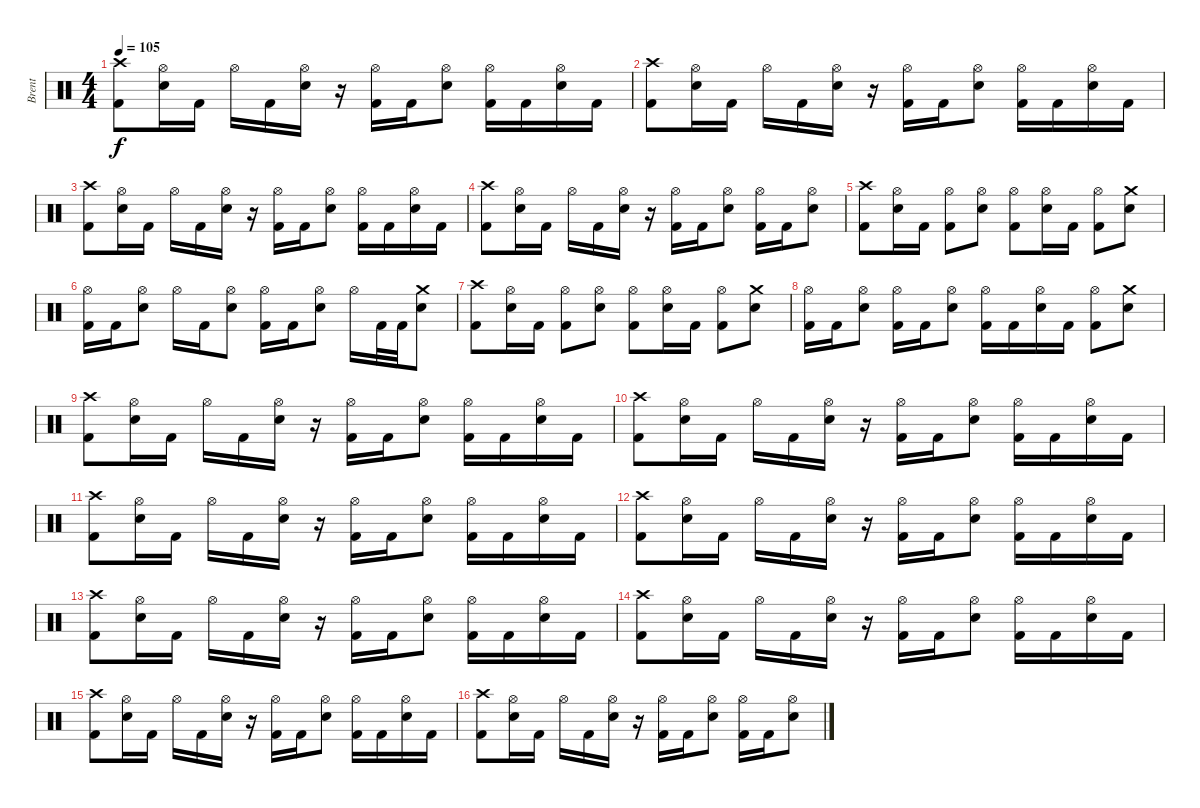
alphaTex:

\track ("Brent" "Brent") {instrument percussion}
\staff {score}
\articulation defaults
\ts (4 4)
\tempo 105
\clef neutral
\ks c
("Crash high (hit)" "Kick (hit) 2").8{dy f} ("Hi-Hat (open)" "Snare (hit) 2").16 "Kick (hit) 2".16 "Hi-Hat (open)".16 "Kick (hit) 2".16 ("Hi-Hat (open)" "Snare (hit) 2").16 r.16 ("Hi-Hat (open)" "Kick (hit) 2").16 "Kick (hit) 2".16 ("Hi-Hat (open)" "Snare (hit) 2").8 ("Hi-Hat (open)" "Kick (hit) 2").16 "Kick (hit) 2".16 ("Hi-Hat (open)" "Snare (hit) 2").16 "Kick (hit) 2".16 |
("Crash high (hit)" "Kick (hit) 2").8 ("Hi-Hat (open)" "Snare (hit) 2").16 "Kick (hit) 2".16 "Hi-Hat (open)".16 "Kick (hit) 2".16 ("Hi-Hat (open)" "Snare (hit) 2").16 r.16 ("Hi-Hat (open)" "Kick (hit) 2").16 "Kick (hit) 2".16 ("Hi-Hat (open)" "Snare (hit) 2").8 ("Hi-Hat (open)" "Kick (hit) 2").16 "Kick (hit) 2".16 ("Hi-Hat (open)" "Snare (hit) 2").16 "Kick (hit) 2".16 |
("Crash high (hit)" "Kick (hit) 2").8 ("Hi-Hat (open)" "Snare (hit) 2").16 "Kick (hit) 2".16 "Hi-Hat (open)".16 "Kick (hit) 2".16 ("Hi-Hat (open)" "Snare (hit) 2").16 r.16 ("Hi-Hat (open)" "Kick (hit) 2").16 "Kick (hit) 2".16 ("Hi-Hat (open)" "Snare (hit) 2").8 ("Hi-Hat (open)" "Kick (hit) 2").16 "Kick (hit) 2".16 ("Hi-Hat (open)" "Snare (hit) 2").16 "Kick (hit) 2".16 |
("Crash high (hit)" "Kick (hit) 2").8 ("Hi-Hat (open)" "Snare (hit) 2").16 "Kick (hit) 2".16 "Hi-Hat (open)".16 "Kick (hit) 2".16 ("Hi-Hat (open)" "Snare (hit) 2").16 r.16 ("Hi-Hat (open)" "Kick (hit) 2").16 "Kick (hit) 2".16 ("Hi-Hat (open)" "Snare (hit) 2").8 ("Hi-Hat (open)" "Kick (hit) 2").16 "Kick (hit) 2".16 ("Hi-Hat (open)" "Snare (hit) 2").8 |
("Crash high (hit)" "Kick (hit) 2").8 ("Hi-Hat (open)" "Snare (hit) 2").16 "Kick (hit) 2".16 ("Hi-Hat (open)" "Kick (hit) 2").8 ("Hi-Hat (open)" "Snare (hit) 2").8 ("Hi-Hat (open)" "Kick (hit) 2").8 ("Hi-Hat (open)" "Snare (hit) 2").16 "Kick (hit) 2".16 ("Hi-Hat (open)" "Kick (hit) 2").8 ("Crash medium (hit)" "Snare (hit) 2").8 |
("Hi-Hat (open)" "Kick (hit) 2").16 "Kick (hit) 2".16 ("Hi-Hat (open)" "Snare (hit) 2").8 "Hi-Hat (open)".16 "Kick (hit) 2".16 ("Hi-Hat (open)" "Snare (hit) 2").8 ("Hi-Hat (open)" "Kick (hit) 2").16 "Kick (hit) 2".16 ("Hi-Hat (open)" "Snare (hit) 2").8 "Hi-Hat (open)".16 "Kick (hit) 2".32 "Kick (hit) 2".32 ("Crash medium (hit)" "Snare (hit) 2").8 |
("Crash high (hit)" "Kick (hit) 2").8 ("Hi-Hat (open)" "Snare (hit) 2").16 "Kick (hit) 2".16 ("Hi-Hat (open)" "Kick (hit) 2").8 ("Hi-Hat (open)" "Snare (hit) 2").8 ("Hi-Hat (open)" "Kick (hit) 2").8 ("Hi-Hat (open)" "Snare (hit) 2").16 "Kick (hit) 2".16 ("Hi-Hat (open)" "Kick (hit) 2").8 ("Crash medium (hit)" "Snare (hit) 2").8 |
("Hi-Hat (open)" "Kick (hit) 2").16 "Kick (hit) 2".16 ("Hi-Hat (open)" "Snare (hit) 2").8 ("Hi-Hat (open)" "Kick (hit) 2").16 "Kick (hit) 2".16 ("Hi-Hat (open)" "Snare (hit) 2").8 ("Hi-Hat (open)" "Kick (hit) 2").16 "Kick (hit) 2".16 ("Hi-Hat (open)" "Snare (hit) 2").16 "Kick (hit) 2".16 ("Hi-Hat (open)" "Kick (hit) 2").8 ("Crash medium (hit)" "Snare (hit) 2").8 |
("Crash high (hit)" "Kick (hit) 2").8 ("Hi-Hat (open)" "Snare (hit) 2").16 "Kick (hit) 2".16 "Hi-Hat (open)".16 "Kick (hit) 2".16 ("Hi-Hat (open)" "Snare (hit) 2").16 r.16 ("Hi-Hat (open)" "Kick (hit) 2").16 "Kick (hit) 2".16 ("Hi-Hat (open)" "Snare (hit) 2").8 ("Hi-Hat (open)" "Kick (hit) 2").16 "Kick (hit) 2".16 ("Hi-Hat (open)" "Snare (hit) 2").16 "Kick (hit) 2".16 |
("Crash high (hit)" "Kick (hit) 2").8 ("Hi-Hat (open)" "Snare (hit) 2").16 "Kick (hit) 2".16 "Hi-Hat (open)".16 "Kick (hit) 2".16 ("Hi-Hat (open)" "Snare (hit) 2").16 r.16 ("Hi-Hat (open)" "Kick (hit) 2").16 "Kick (hit) 2".16 ("Hi-Hat (open)" "Snare (hit) 2").8 ("Hi-Hat (open)" "Kick (hit) 2").16 "Kick (hit) 2".16 ("Hi-Hat (open)" "Snare (hit) 2").16 "Kick (hit) 2".16 |
("Crash high (hit)" "Kick (hit) 2").8 ("Hi-Hat (open)" "Snare (hit) 2").16 "Kick (hit) 2".16 "Hi-Hat (open)".16 "Kick (hit) 2".16 ("Hi-Hat (open)" "Snare (hit) 2").16 r.16 ("Hi-Hat (open)" "Kick (hit) 2").16 "Kick (hit) 2".16 ("Hi-Hat (open)" "Snare (hit) 2").8 ("Hi-Hat (open)" "Kick (hit) 2").16 "Kick (hit) 2".16 ("Hi-Hat (open)" "Snare (hit) 2").16 "Kick (hit) 2".16 |
("Crash high (hit)" "Kick (hit) 2").8 ("Hi-Hat (open)" "Snare (hit) 2").16 "Kick (hit) 2".16 "Hi-Hat (open)".16 "Kick (hit) 2".16 ("Hi-Hat (open)" "Snare (hit) 2").16 r.16 ("Hi-Hat (open)" "Kick (hit) 2").16 "Kick (hit) 2".16 ("Hi-Hat (open)" "Snare (hit) 2").8 ("Hi-Hat (open)" "Kick (hit) 2").16 "Kick (hit) 2".16 ("Hi-Hat (open)" "Snare (hit) 2").16 "Kick (hit) 2".16 |
("Crash high (hit)" "Kick (hit) 2").8 ("Hi-Hat (open)" "Snare (hit) 2").16 "Kick (hit) 2".16 "Hi-Hat (open)".16 "Kick (hit) 2".16 ("Hi-Hat (open)" "Snare (hit) 2").16 r.16 ("Hi-Hat (open)" "Kick (hit) 2").16 "Kick (hit) 2".16 ("Hi-Hat (open)" "Snare (hit) 2").8 ("Hi-Hat (open)" "Kick (hit) 2").16 "Kick (hit) 2".16 ("Hi-Hat (open)" "Snare (hit) 2").16 "Kick (hit) 2".16 |
("Crash high (hit)" "Kick (hit) 2").8 ("Hi-Hat (open)" "Snare (hit) 2").16 "Kick (hit) 2".16 "Hi-Hat (open)".16 "Kick (hit) 2".16 ("Hi-Hat (open)" "Snare (hit) 2").16 r.16 ("Hi-Hat (open)" "Kick (hit) 2").16 "Kick (hit) 2".16 ("Hi-Hat (open)" "Snare (hit) 2").8 ("Hi-Hat (open)" "Kick (hit) 2").16 "Kick (hit) 2".16 ("Hi-Hat (open)" "Snare (hit) 2").16 "Kick (hit) 2".16 |
("Crash high (hit)" "Kick (hit) 2").8 ("Hi-Hat (open)" "Snare (hit) 2").16 "Kick (hit) 2".16 "Hi-Hat (open)".16 "Kick (hit) 2".16 ("Hi-Hat (open)" "Snare (hit) 2").16 r.16 ("Hi-Hat (open)" "Kick (hit) 2").16 "Kick (hit) 2".16 ("Hi-Hat (open)" "Snare (hit) 2").8 ("Hi-Hat (open)" "Kick (hit) 2").16 "Kick (hit) 2".16 ("Hi-Hat (open)" "Snare (hit) 2").16 "Kick (hit) 2".16 |
("Crash high (hit)" "Kick (hit) 2").8 ("Hi-Hat (open)" "Snare (hit) 2").16 "Kick (hit) 2".16 "Hi-Hat (open)".16 "Kick (hit) 2".16 ("Hi-Hat (open)" "Snare (hit) 2").16 r.16 ("Hi-Hat (open)" "Kick (hit) 2").16 "Kick (hit) 2".16 ("Hi-Hat (open)" "Snare (hit) 2").8 ("Hi-Hat (open)" "Kick (hit) 2").16 "Kick (hit) 2".16 ("Hi-Hat (open)" "Snare (hit) 2").8
